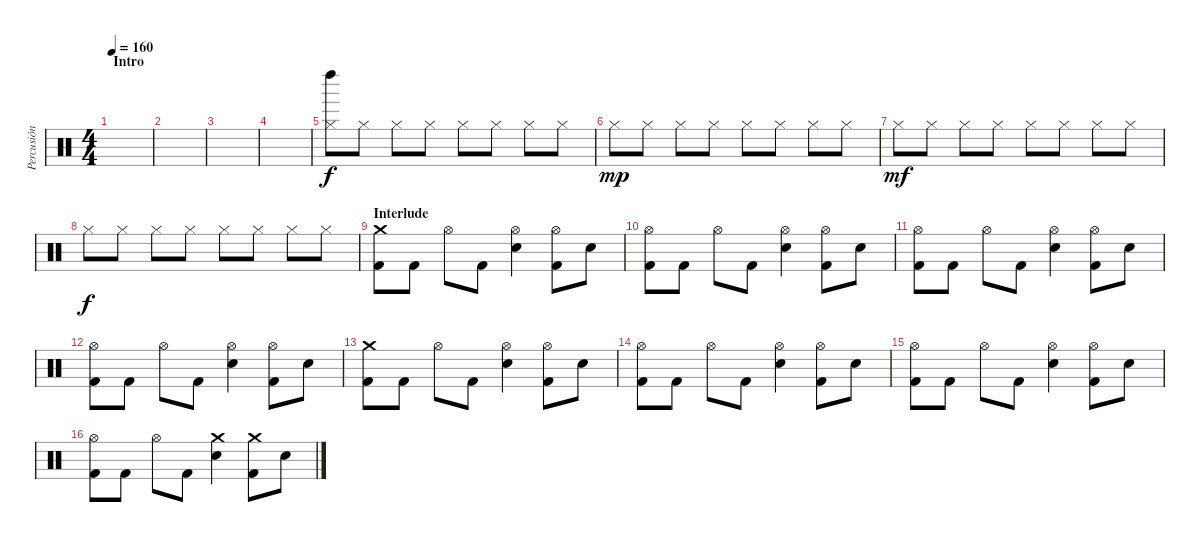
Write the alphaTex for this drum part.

\track ("Percusión" "Percusión") {instrument percussion}
\staff {score}
\articulation defaults
\ts (4 4)
\section ("" "Intro")
\tempo 160
\clef neutral
\ks c
|
|
|
|
("Left Maraca (hit)" "Hi-Hat (closed)").8 "Hi-Hat (closed)".8 "Hi-Hat (closed)".8 "Hi-Hat (closed)".8 "Hi-Hat (closed)".8 "Hi-Hat (closed)".8 "Hi-Hat (closed)".8 "Hi-Hat (closed)".8 |
"Hi-Hat (closed)".8{dy mp} "Hi-Hat (closed)".8 "Hi-Hat (closed)".8 "Hi-Hat (closed)".8 "Hi-Hat (closed)".8 "Hi-Hat (closed)".8 "Hi-Hat (closed)".8 "Hi-Hat (closed)".8 |
"Hi-Hat (closed)".8{dy mf} "Hi-Hat (closed)".8 "Hi-Hat (closed)".8 "Hi-Hat (closed)".8 "Hi-Hat (closed)".8 "Hi-Hat (closed)".8 "Hi-Hat (closed)".8 "Hi-Hat (closed)".8 |
"Hi-Hat (closed)".8{dy f} "Hi-Hat (closed)".8 "Hi-Hat (closed)".8 "Hi-Hat (closed)".8 "Hi-Hat (closed)".8 "Hi-Hat (closed)".8 "Hi-Hat (closed)".8 "Hi-Hat (closed)".8 |
\section ("" "Interlude")
("Crash medium (hit)" "Kick (hit) 2").8 "Kick (hit) 2".8 "Hi-Hat (open)".8 "Kick (hit) 2".8 ("Hi-Hat (open)" "Snare (hit) 2").4 ("Hi-Hat (open)" "Kick (hit) 2").8 "Snare (hit) 2".8 |
("Hi-Hat (open)" "Kick (hit) 2").8 "Kick (hit) 2".8 "Hi-Hat (open)".8 "Kick (hit) 2".8 ("Hi-Hat (open)" "Snare (hit) 2").4 ("Hi-Hat (open)" "Kick (hit) 2").8 "Snare (hit) 2".8 |
("Hi-Hat (open)" "Kick (hit) 2").8 "Kick (hit) 2".8 "Hi-Hat (open)".8 "Kick (hit) 2".8 ("Hi-Hat (open)" "Snare (hit) 2").4 ("Hi-Hat (open)" "Kick (hit) 2").8 "Snare (hit) 2".8 |
("Hi-Hat (open)" "Kick (hit) 2").8 "Kick (hit) 2".8 "Hi-Hat (open)".8 "Kick (hit) 2".8 ("Hi-Hat (open)" "Snare (hit) 2").4 ("Hi-Hat (open)" "Kick (hit) 2").8 "Snare (hit) 2".8 |
("Crash medium (hit)" "Kick (hit) 2").8 "Kick (hit) 2".8 "Hi-Hat (open)".8 "Kick (hit) 2".8 ("Hi-Hat (open)" "Snare (hit) 2").4 ("Hi-Hat (open)" "Kick (hit) 2").8 "Snare (hit) 2".8 |
("Hi-Hat (open)" "Kick (hit) 2").8 "Kick (hit) 2".8 "Hi-Hat (open)".8 "Kick (hit) 2".8 ("Hi-Hat (open)" "Snare (hit) 2").4 ("Hi-Hat (open)" "Kick (hit) 2").8 "Snare (hit) 2".8 |
("Hi-Hat (open)" "Kick (hit) 2").8 "Kick (hit) 2".8 "Hi-Hat (open)".8 "Kick (hit) 2".8 ("Hi-Hat (open)" "Snare (hit) 2").4 ("Hi-Hat (open)" "Kick (hit) 2").8 "Snare (hit) 2".8 |
("Hi-Hat (open)" "Kick (hit) 2").8 "Kick (hit) 2".8 "Hi-Hat (open)".8 "Kick (hit) 2".8 ("Crash medium (hit)" "Snare (hit) 2").4 ("Crash medium (hit)" "Kick (hit) 2").8 "Snare (hit) 2".8
